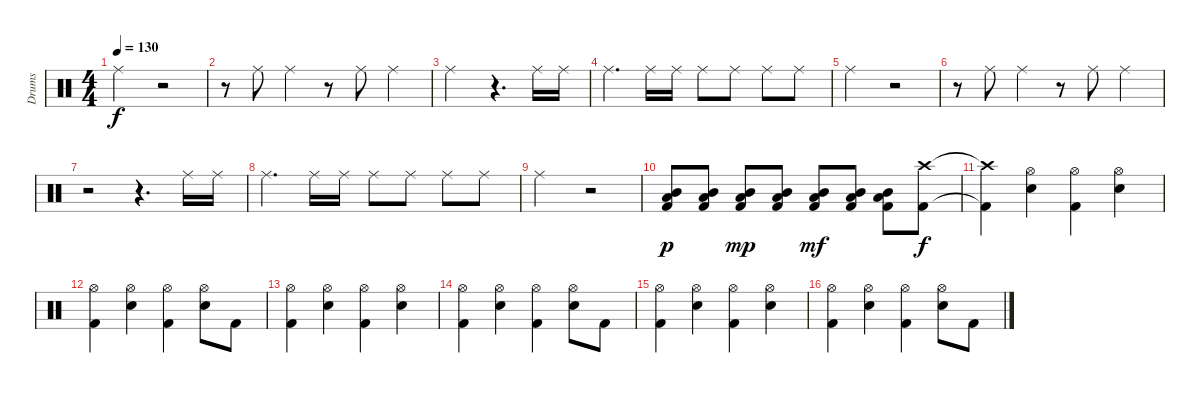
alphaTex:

\track ("Drums" "Drums") {instrument percussion}
\staff {score}
\articulation defaults
\ts (4 4)
\tempo 130
\clef neutral
\ks c "Ride (middle)".2{dy f}
r.2 |
r.8 "Ride (middle)".8 "Ride (middle)".4 r.8 "Ride (middle)".8 "Ride (middle)".4 |
"Ride (middle)".2 r.4{d} "Ride (middle)".16 "Ride (middle)".16 |
"Ride (middle)".4{d} "Ride (middle)".16 "Ride (middle)".16 "Ride (middle)".8 "Ride (middle)".8 "Ride (middle)".8 "Ride (middle)".8 |
"Ride (middle)".2 r.2 |
r.8 "Ride (middle)".8 "Ride (middle)".4 r.8 "Ride (middle)".8 "Ride (middle)".4 |
r.2 r.4{d} "Ride (middle)".16 "Ride (middle)".16 |
"Ride (middle)".4{d} "Ride (middle)".16 "Ride (middle)".16 "Ride (middle)".8 "Ride (middle)".8 "Ride (middle)".8 "Ride (middle)".8 |
"Ride (middle)".2 r.2 |
("Mid Tom (hit)" "Low Tom (hit)" "Kick (hit) 2").8{dy p} ("Mid Tom (hit)" "Low Tom (hit)" "Kick (hit) 2").8 ("Mid Tom (hit)" "Low Tom (hit)" "Kick (hit) 2").8{dy mp} ("Mid Tom (hit)" "Low Tom (hit)" "Kick (hit) 2").8 ("Mid Tom (hit)" "Low Tom (hit)" "Kick (hit) 2").8{dy mf} ("Mid Tom (hit)" "Low Tom (hit)" "Kick (hit) 2").8 ("Mid Tom (hit)" "Low Tom (hit)" "Kick (hit) 2").8 ("Crash high (hit)" "Kick (hit) 2").8{dy f} |
("Crash high (hit)"{t} "Kick (hit) 2"{t}).4 ("Hi-Hat (open)" "Snare (hit) 2").4 ("Hi-Hat (open)" "Kick (hit) 2").4 ("Hi-Hat (open)" "Snare (hit) 2").4 |
("Hi-Hat (open)" "Kick (hit) 2").4 ("Hi-Hat (open)" "Snare (hit) 2").4 ("Hi-Hat (open)" "Kick (hit) 2").4 ("Hi-Hat (open)" "Snare (hit) 2").8 "Kick (hit) 2".8 |
("Hi-Hat (open)" "Kick (hit) 2").4 ("Hi-Hat (open)" "Snare (hit) 2").4 ("Hi-Hat (open)" "Kick (hit) 2").4 ("Hi-Hat (open)" "Snare (hit) 2").4 |
("Hi-Hat (open)" "Kick (hit) 2").4 ("Hi-Hat (open)" "Snare (hit) 2").4 ("Hi-Hat (open)" "Kick (hit) 2").4 ("Hi-Hat (open)" "Snare (hit) 2").8 "Kick (hit) 2".8 |
("Hi-Hat (open)" "Kick (hit) 2").4 ("Hi-Hat (open)" "Snare (hit) 2").4 ("Hi-Hat (open)" "Kick (hit) 2").4 ("Hi-Hat (open)" "Snare (hit) 2").4 |
("Hi-Hat (open)" "Kick (hit) 2").4 ("Hi-Hat (open)" "Snare (hit) 2").4 ("Hi-Hat (open)" "Kick (hit) 2").4 ("Hi-Hat (open)" "Snare (hit) 2").8 "Kick (hit) 2".8
